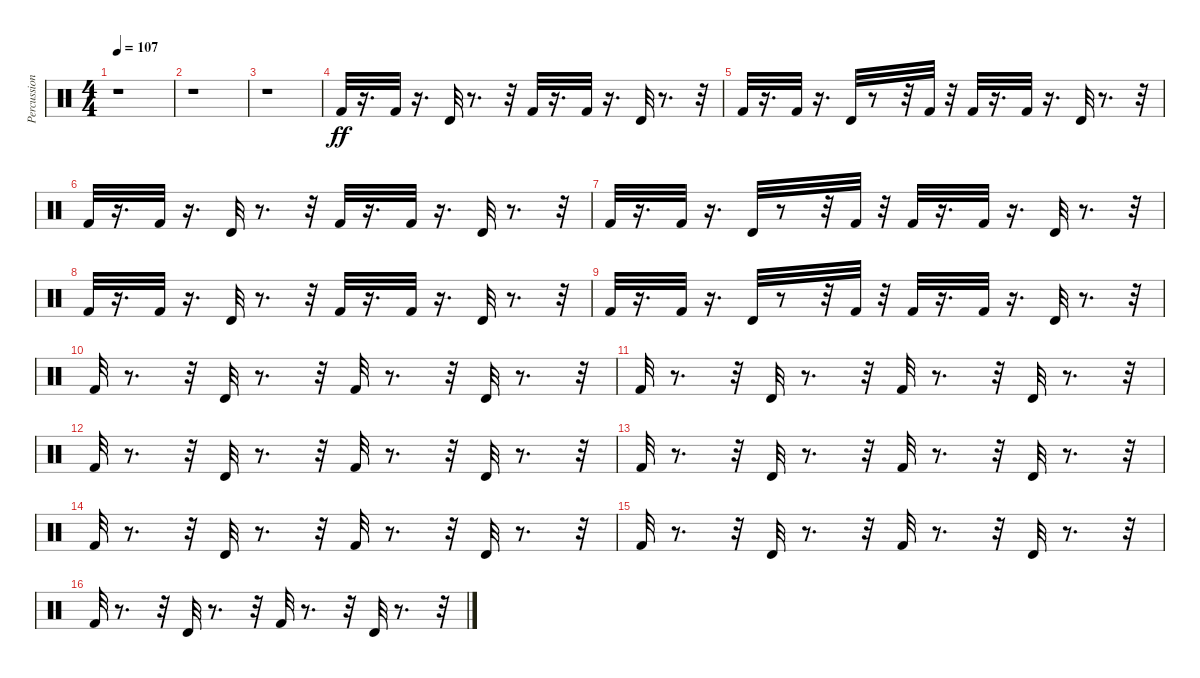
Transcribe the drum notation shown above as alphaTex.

\track ("Percussion" "Percussion") {instrument percussion}
\staff {score}
\articulation defaults
\ts (4 4)
\tempo 107
\clef neutral
\ks c
r.1{dy ff} |
r.1 |
r.1 |
"Kick (hit) 2".32 r.16{d} "Kick (hit) 2".32 r.16{d} "Timbale high (hit)".32 r.8{d} r.32 "Kick (hit) 2".32 r.16{d} "Kick (hit) 2".32 r.16{d} "Timbale high (hit)".32 r.8{d} r.32 |
"Kick (hit) 2".32 r.16{d} "Kick (hit) 2".32 r.16{d} "Timbale high (hit)".32 r.8 r.32 "Kick (hit) 2".32 r.32 "Kick (hit) 2".32 r.16{d} "Kick (hit) 2".32 r.16{d} "Timbale high (hit)".32 r.8{d} r.32 |
"Kick (hit) 2".32 r.16{d} "Kick (hit) 2".32 r.16{d} "Timbale high (hit)".32 r.8{d} r.32 "Kick (hit) 2".32 r.16{d} "Kick (hit) 2".32 r.16{d} "Timbale high (hit)".32 r.8{d} r.32 |
"Kick (hit) 2".32 r.16{d} "Kick (hit) 2".32 r.16{d} "Timbale high (hit)".32 r.8 r.32 "Kick (hit) 2".32 r.32 "Kick (hit) 2".32 r.16{d} "Kick (hit) 2".32 r.16{d} "Timbale high (hit)".32 r.8{d} r.32 |
"Kick (hit) 2".32 r.16{d} "Kick (hit) 2".32 r.16{d} "Timbale high (hit)".32 r.8{d} r.32 "Kick (hit) 2".32 r.16{d} "Kick (hit) 2".32 r.16{d} "Timbale high (hit)".32 r.8{d} r.32 |
"Kick (hit) 2".32 r.16{d} "Kick (hit) 2".32 r.16{d} "Timbale high (hit)".32 r.8 r.32 "Kick (hit) 2".32 r.32 "Kick (hit) 2".32 r.16{d} "Kick (hit) 2".32 r.16{d} "Timbale high (hit)".32 r.8{d} r.32 |
"Kick (hit) 2".32 r.8{d} r.32 "Timbale high (hit)".32 r.8{d} r.32 "Kick (hit) 2".32 r.8{d} r.32 "Timbale high (hit)".32 r.8{d} r.32 |
"Kick (hit) 2".32 r.8{d} r.32 "Timbale high (hit)".32 r.8{d} r.32 "Kick (hit) 2".32 r.8{d} r.32 "Timbale high (hit)".32 r.8{d} r.32 |
"Kick (hit) 2".32 r.8{d} r.32 "Timbale high (hit)".32 r.8{d} r.32 "Kick (hit) 2".32 r.8{d} r.32 "Timbale high (hit)".32 r.8{d} r.32 |
"Kick (hit) 2".32 r.8{d} r.32 "Timbale high (hit)".32 r.8{d} r.32 "Kick (hit) 2".32 r.8{d} r.32 "Timbale high (hit)".32 r.8{d} r.32 |
"Kick (hit) 2".32 r.8{d} r.32 "Timbale high (hit)".32 r.8{d} r.32 "Kick (hit) 2".32 r.8{d} r.32 "Timbale high (hit)".32 r.8{d} r.32 |
"Kick (hit) 2".32 r.8{d} r.32 "Timbale high (hit)".32 r.8{d} r.32 "Kick (hit) 2".32 r.8{d} r.32 "Timbale high (hit)".32 r.8{d} r.32 |
"Kick (hit) 2".32 r.8{d} r.32 "Timbale high (hit)".32 r.8{d} r.32 "Kick (hit) 2".32 r.8{d} r.32 "Timbale high (hit)".32 r.8{d} r.32
